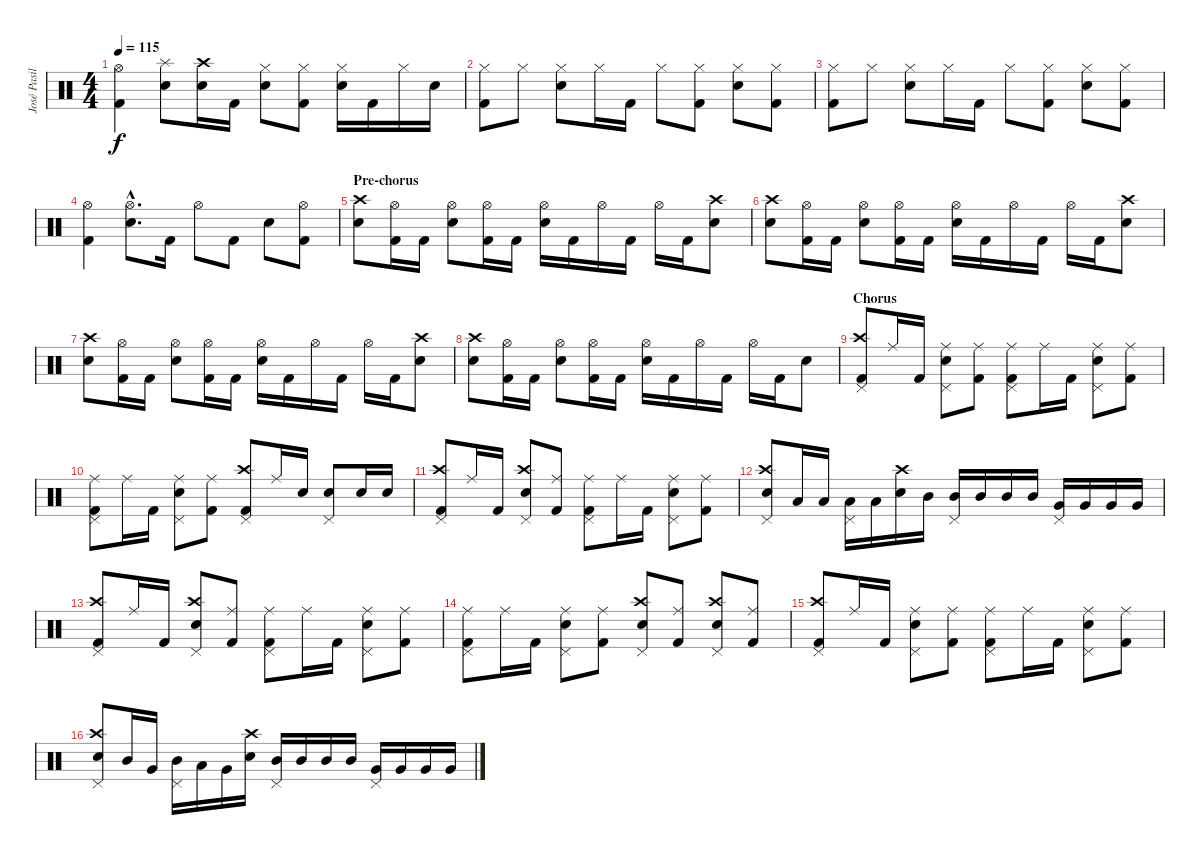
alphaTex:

\track ("José Pasillas" "José Pasil") {instrument percussion}
\staff {score}
\articulation defaults
\ts (4 4)
\tempo 115
\clef neutral
\ks c
("Hi-Hat (open)" "Kick (hit) 2").4{dy f} ("Splash (hit)" "Electric Snare (hit)").8 ("Crash high (hit)" "Electric Snare (hit)").16 "Kick (hit) 2".16 ("Hi-Hat (closed)" "Electric Snare (hit)").8 ("Hi-Hat (closed)" "Kick (hit) 2").8 ("Hi-Hat (closed)" "Electric Snare (hit)").16 "Kick (hit) 2".16 "Hi-Hat (closed)".16 "Electric Snare (hit)".16 |
("Hi-Hat (closed)" "Kick (hit) 2").8 "Hi-Hat (closed)".8 ("Hi-Hat (closed)" "Electric Snare (hit)").8 "Hi-Hat (closed)".16 "Kick (hit) 2".16 "Hi-Hat (closed)".8 ("Hi-Hat (closed)" "Kick (hit) 2").8 ("Hi-Hat (closed)" "Electric Snare (hit)").8 ("Hi-Hat (closed)" "Kick (hit) 2").8 |
("Hi-Hat (closed)" "Kick (hit) 2").8 "Hi-Hat (closed)".8 ("Hi-Hat (closed)" "Electric Snare (hit)").8 "Hi-Hat (closed)".16 "Kick (hit) 2".16 "Hi-Hat (closed)".8 ("Hi-Hat (closed)" "Kick (hit) 2").8 ("Hi-Hat (closed)" "Electric Snare (hit)").8 ("Hi-Hat (closed)" "Kick (hit) 2").8 |
("Hi-Hat (open)" "Kick (hit) 2").4 ("Hi-Hat (open)"{hac} "Electric Snare (hit)"{hac}).8{d} "Kick (hit) 2".16 "Hi-Hat (open)".8 "Kick (hit) 2".8 "Electric Snare (hit)".8 ("Hi-Hat (open)" "Kick (hit) 2").8 |
\section ("" "Pre-chorus")
("Crash high (hit)" "Electric Snare (hit)").8 ("Hi-Hat (open)" "Kick (hit) 2").16 "Kick (hit) 2".16 ("Hi-Hat (open)" "Electric Snare (hit)").8 ("Hi-Hat (open)" "Kick (hit) 2").16 "Kick (hit) 2".16 ("Hi-Hat (open)" "Electric Snare (hit)").16 "Kick (hit) 2".16 "Hi-Hat (open)".16 "Kick (hit) 2".16 "Hi-Hat (open)".16 "Kick (hit) 2".16 ("Crash high (hit)" "Electric Snare (hit)").8 |
("Crash high (hit)" "Electric Snare (hit)").8 ("Hi-Hat (open)" "Kick (hit) 2").16 "Kick (hit) 2".16 ("Hi-Hat (open)" "Electric Snare (hit)").8 ("Hi-Hat (open)" "Kick (hit) 2").16 "Kick (hit) 2".16 ("Hi-Hat (open)" "Electric Snare (hit)").16 "Kick (hit) 2".16 "Hi-Hat (open)".16 "Kick (hit) 2".16 "Hi-Hat (open)".16 "Kick (hit) 2".16 ("Crash high (hit)" "Electric Snare (hit)").8 |
("Crash high (hit)" "Electric Snare (hit)").8 ("Hi-Hat (open)" "Kick (hit) 2").16 "Kick (hit) 2".16 ("Hi-Hat (open)" "Electric Snare (hit)").8 ("Hi-Hat (open)" "Kick (hit) 2").16 "Kick (hit) 2".16 ("Hi-Hat (open)" "Electric Snare (hit)").16 "Kick (hit) 2".16 "Hi-Hat (open)".16 "Kick (hit) 2".16 "Hi-Hat (open)".16 "Kick (hit) 2".16 ("Crash high (hit)" "Electric Snare (hit)").8 |
("Crash high (hit)" "Electric Snare (hit)").8 ("Hi-Hat (open)" "Kick (hit) 2").16 "Kick (hit) 2".16 ("Hi-Hat (open)" "Electric Snare (hit)").8 ("Hi-Hat (open)" "Kick (hit) 2").16 "Kick (hit) 2".16 ("Hi-Hat (open)" "Electric Snare (hit)").16 "Kick (hit) 2".16 "Hi-Hat (open)".16 "Kick (hit) 2".16 "Hi-Hat (open)".16 "Kick (hit) 2".16 "Electric Snare (hit)".8 |
\section ("" "Chorus")
("Pedal Hi-Hat (hit)" "Crash high (hit)" "Kick (hit) 2").8 "Ride (middle)".16 "Kick (hit) 2".16 ("Pedal Hi-Hat (hit)" "Ride (middle)" "Electric Snare (hit)").8 ("Ride (middle)" "Kick (hit) 2").8 ("Pedal Hi-Hat (hit)" "Ride (middle)" "Kick (hit) 2").8 "Ride (middle)".16 "Kick (hit) 2".16 ("Pedal Hi-Hat (hit)" "Ride (middle)" "Electric Snare (hit)").8 ("Ride (middle)" "Kick (hit) 2").8 |
("Pedal Hi-Hat (hit)" "Ride (middle)" "Kick (hit) 2").8 "Ride (middle)".16 "Kick (hit) 2".16 ("Pedal Hi-Hat (hit)" "Ride (middle)" "Electric Snare (hit)").8 ("Ride (middle)" "Kick (hit) 2").8 ("Pedal Hi-Hat (hit)" "Crash high (hit)" "Kick (hit) 2").8 "Ride (middle)".16 "Electric Snare (hit)".16 ("Pedal Hi-Hat (hit)" "Electric Snare (hit)").8 "Electric Snare (hit)".16 "Electric Snare (hit)".16 |
("Pedal Hi-Hat (hit)" "Crash high (hit)" "Kick (hit) 2").8 "Ride (middle)".16 "Kick (hit) 2".16 ("Pedal Hi-Hat (hit)" "Crash high (hit)" "Electric Snare (hit)").8 ("Ride (middle)" "Kick (hit) 2").8 ("Pedal Hi-Hat (hit)" "Ride (middle)" "Kick (hit) 2").8 "Ride (middle)".16 "Kick (hit) 2".16 ("Pedal Hi-Hat (hit)" "Ride (middle)" "Electric Snare (hit)").8 ("Ride (middle)" "Kick (hit) 2").8 |
("Pedal Hi-Hat (hit)" "Crash high (hit)" "Electric Snare (hit)").8 "Low Floor Tom (hit)".16 "Low Floor Tom (hit)".16 ("Pedal Hi-Hat (hit)" "Low Floor Tom (hit)").16 "Low Floor Tom (hit)".16 ("Crash high (hit)" "Electric Snare (hit)").16 "Mid Tom (hit)".16 ("Pedal Hi-Hat (hit)" "Mid Tom (hit)").16 "Mid Tom (hit)".16 "Mid Tom (hit)".16 "Mid Tom (hit)".16 ("Pedal Hi-Hat (hit)" "Very Low Tom (hit)").16 "Very Low Tom (hit)".16 "Very Low Tom (hit)".16 "Very Low Tom (hit)".16 |
("Pedal Hi-Hat (hit)" "Crash high (hit)" "Kick (hit) 2").8 "Ride (middle)".16 "Kick (hit) 2".16 ("Pedal Hi-Hat (hit)" "Crash high (hit)" "Electric Snare (hit)").8 ("Ride (middle)" "Kick (hit) 2").8 ("Pedal Hi-Hat (hit)" "Ride (middle)" "Kick (hit) 2").8 "Ride (middle)".16 "Kick (hit) 2".16 ("Pedal Hi-Hat (hit)" "Ride (middle)" "Electric Snare (hit)").8 ("Ride (middle)" "Kick (hit) 2").8 |
("Pedal Hi-Hat (hit)" "Ride (middle)" "Kick (hit) 2").8 "Ride (middle)".16 "Kick (hit) 2".16 ("Pedal Hi-Hat (hit)" "Ride (middle)" "Electric Snare (hit)").8 ("Ride (middle)" "Kick (hit) 2").8 ("Pedal Hi-Hat (hit)" "Crash high (hit)" "Electric Snare (hit)").8 ("Ride (middle)" "Kick (hit) 2").8 ("Pedal Hi-Hat (hit)" "Crash high (hit)" "Electric Snare (hit)").8 ("Ride (middle)" "Kick (hit) 2").8 |
("Pedal Hi-Hat (hit)" "Crash high (hit)" "Kick (hit) 2").8 "Ride (middle)".16 "Kick (hit) 2".16 ("Pedal Hi-Hat (hit)" "Ride (middle)" "Electric Snare (hit)").8 ("Ride (middle)" "Kick (hit) 2").8 ("Pedal Hi-Hat (hit)" "Ride (middle)" "Kick (hit) 2").8 "Ride (middle)".16 "Kick (hit) 2".16 ("Pedal Hi-Hat (hit)" "Ride (middle)" "Electric Snare (hit)").8 ("Ride (middle)" "Kick (hit) 2").8 |
("Pedal Hi-Hat (hit)" "Crash high (hit)" "Electric Snare (hit)").8 "Mid Tom (hit)".16 "Very Low Tom (hit)".16 ("Pedal Hi-Hat (hit)" "Mid Tom (hit)").16 "Low Floor Tom (hit)".16 "Very Low Tom (hit)".16 ("Crash high (hit)" "Electric Snare (hit)").16 ("Pedal Hi-Hat (hit)" "Mid Tom (hit)").16 "Mid Tom (hit)".16 "Mid Tom (hit)".16 "Mid Tom (hit)".16 ("Pedal Hi-Hat (hit)" "Very Low Tom (hit)").16 "Very Low Tom (hit)".16 "Very Low Tom (hit)".16 "Very Low Tom (hit)".16
